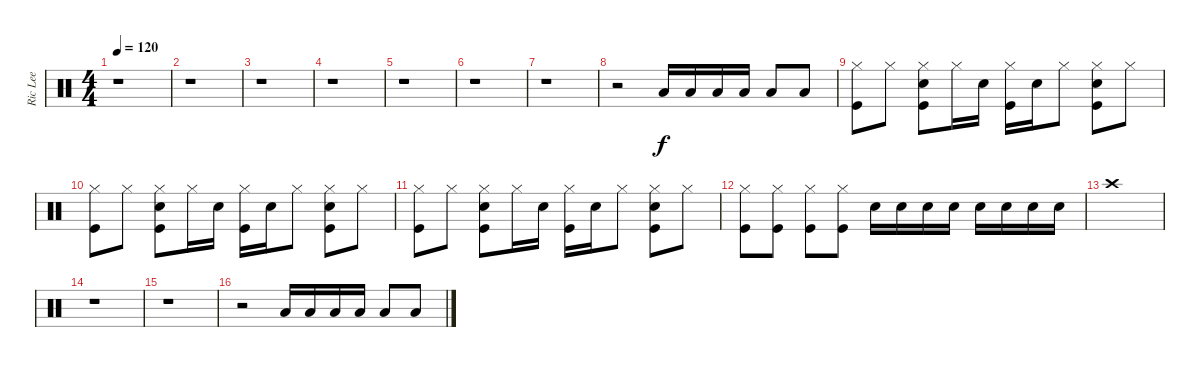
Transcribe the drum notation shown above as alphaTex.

\track ("Ric Lee" "Ric Lee") {instrument percussion}
\staff {score}
\articulation defaults
\ts (4 4)
\tempo 120
\clef neutral
\ks c
r.1{dy f} |
r.1 |
r.1 |
r.1 |
r.1 |
r.1 |
r.1 |
r.2 "Low Tom (hit)".16 "Low Tom (hit)".16 "Low Tom (hit)".16 "Low Tom (hit)".16 "Low Tom (hit)".8 "Low Tom (hit)".8 |
("Kick (hit)" "Hi-Hat (closed)").8 "Hi-Hat (closed)".8 ("Kick (hit)" "Snare (hit) 2" "Hi-Hat (closed)").8 "Hi-Hat (closed)".16 "Snare (hit) 2".16 ("Kick (hit)" "Hi-Hat (closed)").16 "Snare (hit) 2".16 "Hi-Hat (closed)".8 ("Kick (hit)" "Snare (hit) 2" "Hi-Hat (closed)").8 "Hi-Hat (closed)".8 |
("Kick (hit)" "Hi-Hat (closed)").8 "Hi-Hat (closed)".8 ("Kick (hit)" "Snare (hit) 2" "Hi-Hat (closed)").8 "Hi-Hat (closed)".16 "Snare (hit) 2".16 ("Kick (hit)" "Hi-Hat (closed)").16 "Snare (hit) 2".16 "Hi-Hat (closed)".8 ("Kick (hit)" "Snare (hit) 2" "Hi-Hat (closed)").8 "Hi-Hat (closed)".8 |
("Kick (hit)" "Hi-Hat (closed)").8 "Hi-Hat (closed)".8 ("Kick (hit)" "Snare (hit) 2" "Hi-Hat (closed)").8 "Hi-Hat (closed)".16 "Snare (hit) 2".16 ("Kick (hit)" "Hi-Hat (closed)").16 "Snare (hit) 2".16 "Hi-Hat (closed)".8 ("Kick (hit)" "Snare (hit) 2" "Hi-Hat (closed)").8 "Hi-Hat (closed)".8 |
("Kick (hit)" "Hi-Hat (closed)").8 ("Kick (hit)" "Hi-Hat (closed)").8 ("Kick (hit)" "Hi-Hat (closed)").8 ("Kick (hit)" "Hi-Hat (closed)").8 "Snare (hit) 2".16 "Snare (hit) 2".16 "Snare (hit) 2".16 "Snare (hit) 2".16 "Snare (hit) 2".16 "Snare (hit) 2".16 "Snare (hit) 2".16 "Snare (hit) 2".16 |
"Crash high (hit)".1 |
r.1 |
r.1 |
r.2 "Low Tom (hit)".16 "Low Tom (hit)".16 "Low Tom (hit)".16 "Low Tom (hit)".16 "Low Tom (hit)".8 "Low Tom (hit)".8
